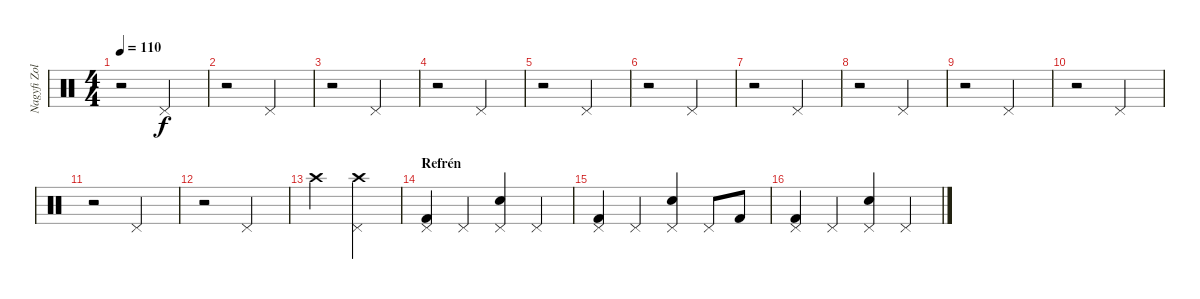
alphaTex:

\track ("Nagyfi Zoltán (dob)" "Nagyfi Zol") {instrument percussion}
\staff {score}
\articulation defaults
\ts (4 4)
\tempo 110
\clef neutral
\ks c
r.2{dy f} "Pedal Hi-Hat (hit)".2 |
r.2 "Pedal Hi-Hat (hit)".2 |
r.2 "Pedal Hi-Hat (hit)".2 |
r.2 "Pedal Hi-Hat (hit)".2 |
r.2 "Pedal Hi-Hat (hit)".2 |
r.2 "Pedal Hi-Hat (hit)".2 |
r.2 "Pedal Hi-Hat (hit)".2 |
r.2 "Pedal Hi-Hat (hit)".2 |
r.2 "Pedal Hi-Hat (hit)".2 |
r.2 "Pedal Hi-Hat (hit)".2 |
r.2 "Pedal Hi-Hat (hit)".2 |
r.2 "Pedal Hi-Hat (hit)".2 |
"Crash high (hit)".2 ("Pedal Hi-Hat (hit)" "Crash high (hit)").2 |
\section ("" "Refrén")
("Pedal Hi-Hat (hit)" "Kick (hit) 2").4 "Pedal Hi-Hat (hit)".4 ("Pedal Hi-Hat (hit)" "Snare (hit) 2").4 "Pedal Hi-Hat (hit)".4 |
("Pedal Hi-Hat (hit)" "Kick (hit) 2").4 "Pedal Hi-Hat (hit)".4 ("Pedal Hi-Hat (hit)" "Snare (hit) 2").4 "Pedal Hi-Hat (hit)".8 "Kick (hit) 2".8 |
("Pedal Hi-Hat (hit)" "Kick (hit) 2").4 "Pedal Hi-Hat (hit)".4 ("Pedal Hi-Hat (hit)" "Snare (hit) 2").4 "Pedal Hi-Hat (hit)".4
